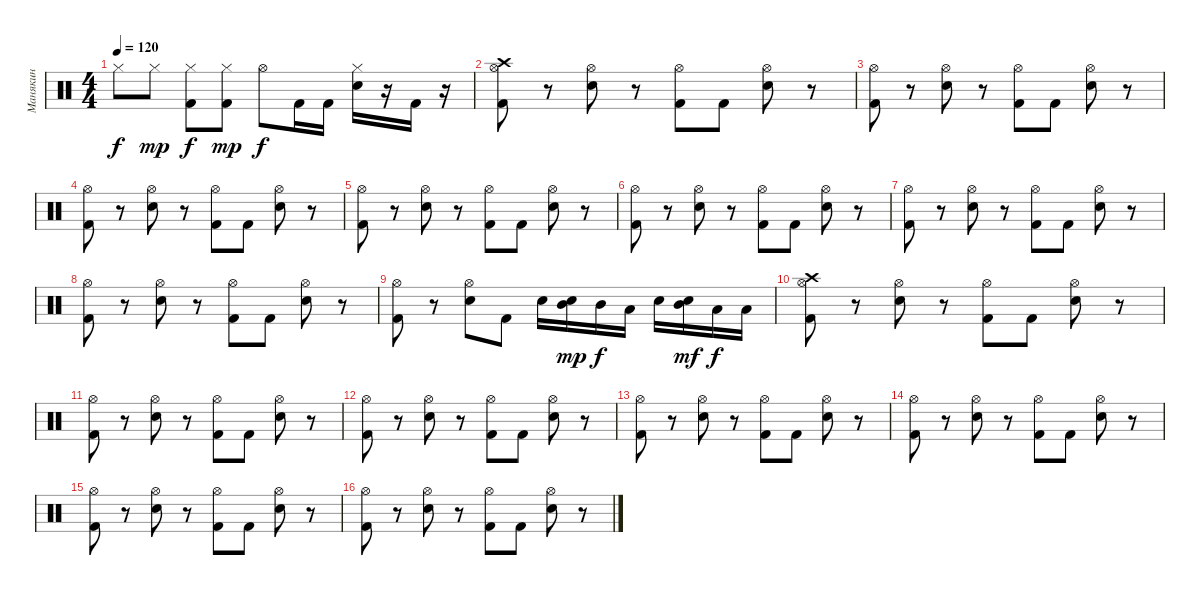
\track ("Манякин" "Манякин") {instrument percussion}
\staff {score}
\articulation defaults
\ts (4 4)
\tempo 120
\clef neutral
\ks c "Hi-Hat (closed)".8{dy f} "Hi-Hat (closed)".8{dy mp}
("Hi-Hat (closed)" "Kick (hit) 2").8{dy f} ("Hi-Hat (closed)" "Kick (hit) 2").8{dy mp} "Hi-Hat (open)".8{dy f} "Kick (hit) 2".16 "Kick (hit) 2".16 ("Hi-Hat (closed)" "Electric Snare (hit)").16 r.16 "Kick (hit) 2".16 r.16 |
("Crash high (hit)" "Hi-Hat (open)" "Kick (hit) 2").8 r.8 ("Hi-Hat (open)" "Electric Snare (hit)").8 r.8 ("Hi-Hat (open)" "Kick (hit) 2").8 "Kick (hit) 2".8 ("Hi-Hat (open)" "Electric Snare (hit)").8 r.8 |
("Hi-Hat (open)" "Kick (hit) 2").8 r.8 ("Hi-Hat (open)" "Electric Snare (hit)").8 r.8 ("Hi-Hat (open)" "Kick (hit) 2").8 "Kick (hit) 2".8 ("Hi-Hat (open)" "Electric Snare (hit)").8 r.8 |
("Hi-Hat (open)" "Kick (hit) 2").8 r.8 ("Hi-Hat (open)" "Electric Snare (hit)").8 r.8 ("Hi-Hat (open)" "Kick (hit) 2").8 "Kick (hit) 2".8 ("Hi-Hat (open)" "Electric Snare (hit)").8 r.8 |
("Hi-Hat (open)" "Kick (hit) 2").8 r.8 ("Hi-Hat (open)" "Electric Snare (hit)").8 r.8 ("Hi-Hat (open)" "Kick (hit) 2").8 "Kick (hit) 2".8 ("Hi-Hat (open)" "Electric Snare (hit)").8 r.8 |
("Hi-Hat (open)" "Kick (hit) 2").8 r.8 ("Hi-Hat (open)" "Electric Snare (hit)").8 r.8 ("Hi-Hat (open)" "Kick (hit) 2").8 "Kick (hit) 2".8 ("Hi-Hat (open)" "Electric Snare (hit)").8 r.8 |
("Hi-Hat (open)" "Kick (hit) 2").8 r.8 ("Hi-Hat (open)" "Electric Snare (hit)").8 r.8 ("Hi-Hat (open)" "Kick (hit) 2").8 "Kick (hit) 2".8 ("Hi-Hat (open)" "Electric Snare (hit)").8 r.8 |
("Hi-Hat (open)" "Kick (hit) 2").8 r.8 ("Hi-Hat (open)" "Electric Snare (hit)").8 r.8 ("Hi-Hat (open)" "Kick (hit) 2").8 "Kick (hit) 2".8 ("Hi-Hat (open)" "Electric Snare (hit)").8 r.8 |
("Hi-Hat (open)" "Kick (hit) 2").8 r.8 ("Hi-Hat (open)" "Electric Snare (hit)").8 "Kick (hit) 2".8 "Electric Snare (hit)".16 ("Electric Snare (hit)" "Mid Tom (hit)").16{dy mp} "Mid Tom (hit)".16{dy f} "Low Tom (hit)".16 "Electric Snare (hit)".16 ("Electric Snare (hit)" "Mid Tom (hit)").16{dy mf} "Low Tom (hit)".16{dy f} "Low Floor Tom (hit)".16 |
("Crash high (hit)" "Hi-Hat (open)" "Kick (hit) 2").8 r.8 ("Hi-Hat (open)" "Electric Snare (hit)").8 r.8 ("Hi-Hat (open)" "Kick (hit) 2").8 "Kick (hit) 2".8 ("Hi-Hat (open)" "Electric Snare (hit)").8 r.8 |
("Hi-Hat (open)" "Kick (hit) 2").8 r.8 ("Hi-Hat (open)" "Electric Snare (hit)").8 r.8 ("Hi-Hat (open)" "Kick (hit) 2").8 "Kick (hit) 2".8 ("Hi-Hat (open)" "Electric Snare (hit)").8 r.8 |
("Hi-Hat (open)" "Kick (hit) 2").8 r.8 ("Hi-Hat (open)" "Electric Snare (hit)").8 r.8 ("Hi-Hat (open)" "Kick (hit) 2").8 "Kick (hit) 2".8 ("Hi-Hat (open)" "Electric Snare (hit)").8 r.8 |
("Hi-Hat (open)" "Kick (hit) 2").8 r.8 ("Hi-Hat (open)" "Electric Snare (hit)").8 r.8 ("Hi-Hat (open)" "Kick (hit) 2").8 "Kick (hit) 2".8 ("Hi-Hat (open)" "Electric Snare (hit)").8 r.8 |
("Hi-Hat (open)" "Kick (hit) 2").8 r.8 ("Hi-Hat (open)" "Electric Snare (hit)").8 r.8 ("Hi-Hat (open)" "Kick (hit) 2").8 "Kick (hit) 2".8 ("Hi-Hat (open)" "Electric Snare (hit)").8 r.8 |
("Hi-Hat (open)" "Kick (hit) 2").8 r.8 ("Hi-Hat (open)" "Electric Snare (hit)").8 r.8 ("Hi-Hat (open)" "Kick (hit) 2").8 "Kick (hit) 2".8 ("Hi-Hat (open)" "Electric Snare (hit)").8 r.8 |
("Hi-Hat (open)" "Kick (hit) 2").8 r.8 ("Hi-Hat (open)" "Electric Snare (hit)").8 r.8 ("Hi-Hat (open)" "Kick (hit) 2").8 "Kick (hit) 2".8 ("Hi-Hat (open)" "Electric Snare (hit)").8 r.8
